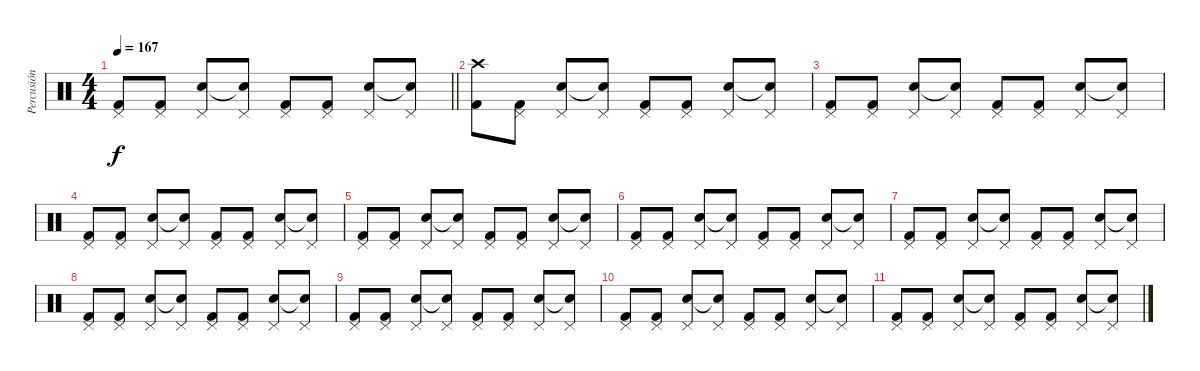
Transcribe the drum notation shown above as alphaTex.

\track ("Percusión" "Percusión") {instrument percussion}
\staff {score}
\articulation defaults
\ts (4 4)
\tempo 167
\clef neutral
\barLineRight lightlight
\ks c
("Pedal Hi-Hat (hit)" "Kick (hit) 2").8{dy f} ("Pedal Hi-Hat (hit)" "Kick (hit) 2").8 ("Pedal Hi-Hat (hit)" "Snare (hit) 2").8 ("Pedal Hi-Hat (hit)" "Snare (hit)"{t}).8 ("Pedal Hi-Hat (hit)" "Kick (hit) 2").8 ("Pedal Hi-Hat (hit)" "Kick (hit) 2").8 ("Pedal Hi-Hat (hit)" "Snare (hit) 2").8 ("Pedal Hi-Hat (hit)" "Snare (hit)"{t}).8 |
("Crash high (hit)" "Kick (hit) 2").8 ("Pedal Hi-Hat (hit)" "Kick (hit) 2").8 ("Pedal Hi-Hat (hit)" "Snare (hit) 2").8 ("Pedal Hi-Hat (hit)" "Snare (hit)"{t}).8 ("Pedal Hi-Hat (hit)" "Kick (hit) 2").8 ("Pedal Hi-Hat (hit)" "Kick (hit) 2").8 ("Pedal Hi-Hat (hit)" "Snare (hit) 2").8 ("Pedal Hi-Hat (hit)" "Snare (hit)"{t}).8 |
("Pedal Hi-Hat (hit)" "Kick (hit) 2").8 ("Pedal Hi-Hat (hit)" "Kick (hit) 2").8 ("Pedal Hi-Hat (hit)" "Snare (hit) 2").8 ("Pedal Hi-Hat (hit)" "Snare (hit)"{t}).8 ("Pedal Hi-Hat (hit)" "Kick (hit) 2").8 ("Pedal Hi-Hat (hit)" "Kick (hit) 2").8 ("Pedal Hi-Hat (hit)" "Snare (hit) 2").8 ("Pedal Hi-Hat (hit)" "Snare (hit)"{t}).8 |
("Pedal Hi-Hat (hit)" "Kick (hit) 2").8 ("Pedal Hi-Hat (hit)" "Kick (hit) 2").8 ("Pedal Hi-Hat (hit)" "Snare (hit) 2").8 ("Pedal Hi-Hat (hit)" "Snare (hit)"{t}).8 ("Pedal Hi-Hat (hit)" "Kick (hit) 2").8 ("Pedal Hi-Hat (hit)" "Kick (hit) 2").8 ("Pedal Hi-Hat (hit)" "Snare (hit) 2").8 ("Pedal Hi-Hat (hit)" "Snare (hit)"{t}).8 |
("Pedal Hi-Hat (hit)" "Kick (hit) 2").8 ("Pedal Hi-Hat (hit)" "Kick (hit) 2").8 ("Pedal Hi-Hat (hit)" "Snare (hit) 2").8 ("Pedal Hi-Hat (hit)" "Snare (hit)"{t}).8 ("Pedal Hi-Hat (hit)" "Kick (hit) 2").8 ("Pedal Hi-Hat (hit)" "Kick (hit) 2").8 ("Pedal Hi-Hat (hit)" "Snare (hit) 2").8 ("Pedal Hi-Hat (hit)" "Snare (hit)"{t}).8 |
("Pedal Hi-Hat (hit)" "Kick (hit) 2").8 ("Pedal Hi-Hat (hit)" "Kick (hit) 2").8 ("Pedal Hi-Hat (hit)" "Snare (hit) 2").8 ("Pedal Hi-Hat (hit)" "Snare (hit)"{t}).8 ("Pedal Hi-Hat (hit)" "Kick (hit) 2").8 ("Pedal Hi-Hat (hit)" "Kick (hit) 2").8 ("Pedal Hi-Hat (hit)" "Snare (hit) 2").8 ("Pedal Hi-Hat (hit)" "Snare (hit)"{t}).8 |
("Pedal Hi-Hat (hit)" "Kick (hit) 2").8 ("Pedal Hi-Hat (hit)" "Kick (hit) 2").8 ("Pedal Hi-Hat (hit)" "Snare (hit) 2").8 ("Pedal Hi-Hat (hit)" "Snare (hit)"{t}).8 ("Pedal Hi-Hat (hit)" "Kick (hit) 2").8 ("Pedal Hi-Hat (hit)" "Kick (hit) 2").8 ("Pedal Hi-Hat (hit)" "Snare (hit) 2").8 ("Pedal Hi-Hat (hit)" "Snare (hit)"{t}).8 |
("Pedal Hi-Hat (hit)" "Kick (hit) 2").8 ("Pedal Hi-Hat (hit)" "Kick (hit) 2").8 ("Pedal Hi-Hat (hit)" "Snare (hit) 2").8 ("Pedal Hi-Hat (hit)" "Snare (hit)"{t}).8 ("Pedal Hi-Hat (hit)" "Kick (hit) 2").8 ("Pedal Hi-Hat (hit)" "Kick (hit) 2").8 ("Pedal Hi-Hat (hit)" "Snare (hit) 2").8 ("Pedal Hi-Hat (hit)" "Snare (hit)"{t}).8 |
("Pedal Hi-Hat (hit)" "Kick (hit) 2").8 ("Pedal Hi-Hat (hit)" "Kick (hit) 2").8 ("Pedal Hi-Hat (hit)" "Snare (hit) 2").8 ("Pedal Hi-Hat (hit)" "Snare (hit)"{t}).8 ("Pedal Hi-Hat (hit)" "Kick (hit) 2").8 ("Pedal Hi-Hat (hit)" "Kick (hit) 2").8 ("Pedal Hi-Hat (hit)" "Snare (hit) 2").8 ("Pedal Hi-Hat (hit)" "Snare (hit)"{t}).8 |
("Pedal Hi-Hat (hit)" "Kick (hit) 2").8 ("Pedal Hi-Hat (hit)" "Kick (hit) 2").8 ("Pedal Hi-Hat (hit)" "Snare (hit) 2").8 ("Pedal Hi-Hat (hit)" "Snare (hit)"{t}).8 ("Pedal Hi-Hat (hit)" "Kick (hit) 2").8 ("Pedal Hi-Hat (hit)" "Kick (hit) 2").8 ("Pedal Hi-Hat (hit)" "Snare (hit) 2").8 ("Pedal Hi-Hat (hit)" "Snare (hit)"{t}).8 |
("Pedal Hi-Hat (hit)" "Kick (hit) 2").8 ("Pedal Hi-Hat (hit)" "Kick (hit) 2").8 ("Pedal Hi-Hat (hit)" "Snare (hit) 2").8 ("Pedal Hi-Hat (hit)" "Snare (hit)"{t}).8 ("Pedal Hi-Hat (hit)" "Kick (hit) 2").8 ("Pedal Hi-Hat (hit)" "Kick (hit) 2").8 ("Pedal Hi-Hat (hit)" "Snare (hit) 2").8 ("Pedal Hi-Hat (hit)" "Snare (hit)"{t}).8
